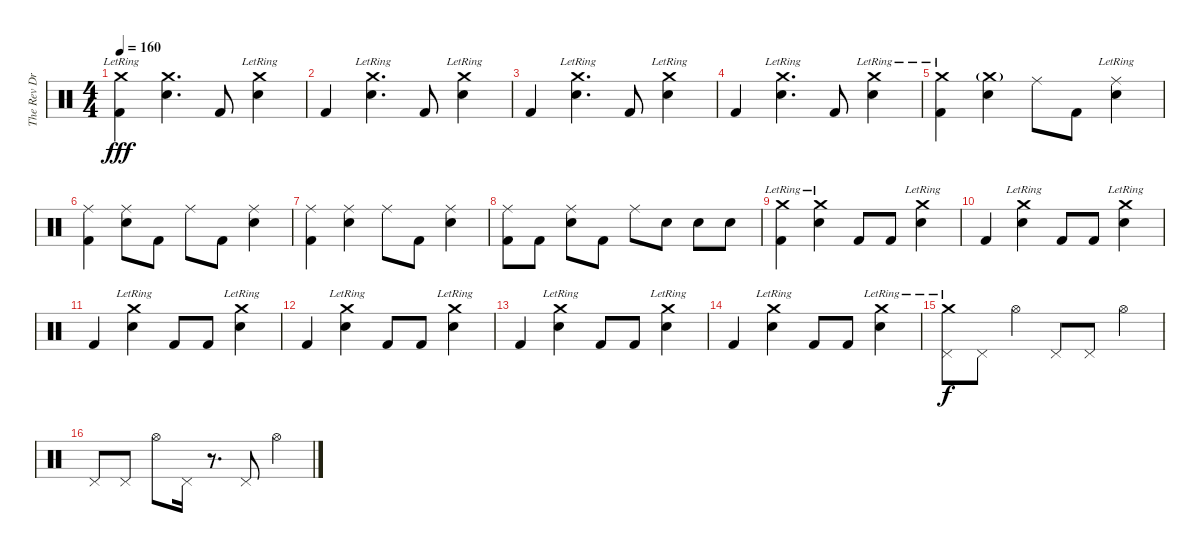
\track ("The Rev Drum" "The Rev Dr") {instrument percussion}
\staff {score}
\articulation defaults
\ts (4 4)
\tempo 160
\clef neutral
\ks c
("Crash medium (hit)"{lr} "Kick (hit) 2").4{dy fff} ("Crash medium (hit)" "Electric Snare (hit)").4{d} "Kick (hit) 2".8 ("Crash medium (hit)"{lr} "Electric Snare (hit)").4 |
"Kick (hit) 2".4 ("Crash medium (hit)"{lr} "Electric Snare (hit)").4{d} "Kick (hit) 2".8 ("Crash medium (hit)"{lr} "Electric Snare (hit)").4 |
"Kick (hit) 2".4 ("Crash medium (hit)"{lr} "Electric Snare (hit)").4{d} "Kick (hit) 2".8 ("Crash medium (hit)"{lr} "Electric Snare (hit)").4 |
"Kick (hit) 2".4 ("Crash medium (hit)"{lr} "Electric Snare (hit)").4{d} "Kick (hit) 2".8 ("Crash medium (hit)"{lr} "Electric Snare (hit)").4 |
("Crash medium (hit)"{lr} "Kick (hit) 2").4 ("Crash medium (hit)"{g} "Electric Snare (hit)").4 "Ride (middle)".8 "Kick (hit) 2".8 ("Ride (middle)"{lr} "Electric Snare (hit)").4 |
("Ride (middle)" "Kick (hit) 2").4 ("Ride (middle)" "Electric Snare (hit)").8 "Kick (hit) 2".8 "Ride (middle)".8 "Kick (hit) 2".8 ("Ride (middle)" "Electric Snare (hit)").4 |
("Ride (middle)" "Kick (hit) 2").4 ("Ride (middle)" "Electric Snare (hit)").4 "Ride (middle)".8 "Kick (hit) 2".8 ("Ride (middle)" "Electric Snare (hit)").4 |
("Ride (middle)" "Kick (hit) 2").8 "Kick (hit) 2".8 ("Ride (middle)" "Electric Snare (hit)").8 "Kick (hit) 2".8 "Ride (middle)".8 "Electric Snare (hit)".8 "Electric Snare (hit)".8 "Electric Snare (hit)".8 |
("Crash medium (hit)"{lr} "Kick (hit) 2").4 ("Crash medium (hit)"{lr} "Electric Snare (hit)").4 "Kick (hit) 2".8 "Kick (hit) 2".8 ("Crash medium (hit)"{lr} "Electric Snare (hit)").4 |
"Kick (hit) 2".4 ("Crash medium (hit)"{lr} "Electric Snare (hit)").4 "Kick (hit) 2".8 "Kick (hit) 2".8 ("Crash medium (hit)"{lr} "Electric Snare (hit)").4 |
"Kick (hit) 2".4 ("Crash medium (hit)"{lr} "Electric Snare (hit)").4 "Kick (hit) 2".8 "Kick (hit) 2".8 ("Crash medium (hit)"{lr} "Electric Snare (hit)").4 |
"Kick (hit) 2".4 ("Crash medium (hit)"{lr} "Electric Snare (hit)").4 "Kick (hit) 2".8 "Kick (hit) 2".8 ("Crash medium (hit)"{lr} "Electric Snare (hit)").4 |
"Kick (hit) 2".4 ("Crash medium (hit)"{lr} "Electric Snare (hit)").4 "Kick (hit) 2".8 "Kick (hit) 2".8 ("Crash medium (hit)"{lr} "Electric Snare (hit)").4 |
"Kick (hit) 2".4 ("Crash medium (hit)"{lr} "Electric Snare (hit)").4 "Kick (hit) 2".8 "Kick (hit) 2".8 ("Crash medium (hit)"{lr} "Electric Snare (hit)").4 |
("Crash medium (hit)"{lr} "Pedal Hi-Hat (hit)").8{dy f volume 8} "Pedal Hi-Hat (hit)".8 "Hi-Hat (open)".4 "Pedal Hi-Hat (hit)".8 "Pedal Hi-Hat (hit)".8 "Hi-Hat (open)".4 |
"Pedal Hi-Hat (hit)".8 "Pedal Hi-Hat (hit)".8 "Hi-Hat (open)".8 "Pedal Hi-Hat (hit)".16 r.8{d} "Pedal Hi-Hat (hit)".8 "Hi-Hat (open)".4
